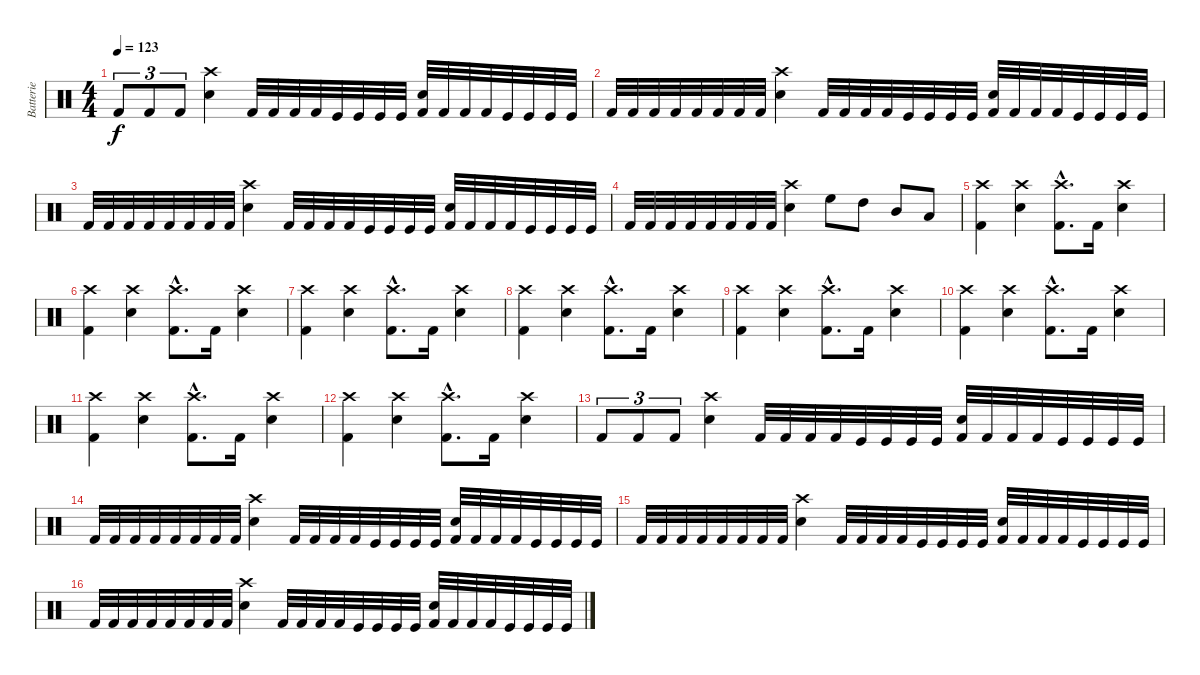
\track ("Batterie" "Batterie") {instrument percussion}
\staff {score}
\articulation defaults
\ts (4 4)
\section ("" "")
\tempo 123
\clef neutral
\ks c "Kick (hit) 2".8{tu (3 2) dy f} "Kick (hit) 2".8{tu (3 2)} "Kick (hit) 2".8{tu (3 2)}
("Snare (hit) 2" "Crash high (hit)").4 "Kick (hit) 2".32 "Kick (hit) 2".32 "Kick (hit) 2".32 "Kick (hit) 2".32 "Kick (hit)".32 "Kick (hit)".32 "Kick (hit)".32 "Kick (hit)".32 ("Kick (hit) 2" "Snare (hit) 2").32 "Kick (hit) 2".32 "Kick (hit) 2".32 "Kick (hit) 2".32 "Kick (hit)".32 "Kick (hit)".32 "Kick (hit)".32 "Kick (hit)".32 |
"Kick (hit) 2".32 "Kick (hit) 2".32 "Kick (hit) 2".32 "Kick (hit) 2".32 "Kick (hit) 2".32 "Kick (hit) 2".32 "Kick (hit) 2".32 "Kick (hit) 2".32 ("Snare (hit) 2" "Crash high (hit)").4 "Kick (hit) 2".32 "Kick (hit) 2".32 "Kick (hit) 2".32 "Kick (hit) 2".32 "Kick (hit)".32 "Kick (hit)".32 "Kick (hit)".32 "Kick (hit)".32 ("Kick (hit) 2" "Snare (hit) 2").32 "Kick (hit) 2".32 "Kick (hit) 2".32 "Kick (hit) 2".32 "Kick (hit)".32 "Kick (hit)".32 "Kick (hit)".32 "Kick (hit)".32 |
"Kick (hit) 2".32 "Kick (hit) 2".32 "Kick (hit) 2".32 "Kick (hit) 2".32 "Kick (hit) 2".32 "Kick (hit) 2".32 "Kick (hit) 2".32 "Kick (hit) 2".32 ("Snare (hit) 2" "Crash high (hit)").4 "Kick (hit) 2".32 "Kick (hit) 2".32 "Kick (hit) 2".32 "Kick (hit) 2".32 "Kick (hit)".32 "Kick (hit)".32 "Kick (hit)".32 "Kick (hit)".32 ("Kick (hit) 2" "Snare (hit) 2").32 "Kick (hit) 2".32 "Kick (hit) 2".32 "Kick (hit) 2".32 "Kick (hit)".32 "Kick (hit)".32 "Kick (hit)".32 "Kick (hit)".32 |
"Kick (hit) 2".32 "Kick (hit) 2".32 "Kick (hit) 2".32 "Kick (hit) 2".32 "Kick (hit) 2".32 "Kick (hit) 2".32 "Kick (hit) 2".32 "Kick (hit) 2".32 ("Snare (hit) 2" "Crash high (hit)").4 "High Floor Tom (hit)".8 "High Tom (hit)".8 "Mid Tom (hit)".8 "Low Tom (hit)".8 |
\section ("" "")
("Kick (hit) 2" "Crash high (hit)").4 ("Snare (hit) 2" "Crash high (hit)").4 ("Kick (hit) 2"{hac} "Crash high (hit)"{hac}).8{d} "Kick (hit) 2".16 ("Snare (hit) 2" "Crash high (hit)").4 |
("Kick (hit) 2" "Crash high (hit)").4 ("Snare (hit) 2" "Crash high (hit)").4 ("Kick (hit) 2"{hac} "Crash high (hit)"{hac}).8{d} "Kick (hit) 2".16 ("Snare (hit) 2" "Crash high (hit)").4 |
("Kick (hit) 2" "Crash high (hit)").4 ("Snare (hit) 2" "Crash high (hit)").4 ("Kick (hit) 2"{hac} "Crash high (hit)"{hac}).8{d} "Kick (hit) 2".16 ("Snare (hit) 2" "Crash high (hit)").4 |
("Kick (hit) 2" "Crash high (hit)").4 ("Snare (hit) 2" "Crash high (hit)").4 ("Kick (hit) 2"{hac} "Crash high (hit)"{hac}).8{d} "Kick (hit) 2".16 ("Snare (hit) 2" "Crash high (hit)").4 |
("Kick (hit) 2" "Crash high (hit)").4 ("Snare (hit) 2" "Crash high (hit)").4 ("Kick (hit) 2"{hac} "Crash high (hit)"{hac}).8{d} "Kick (hit) 2".16 ("Snare (hit) 2" "Crash high (hit)").4 |
("Kick (hit) 2" "Crash high (hit)").4 ("Snare (hit) 2" "Crash high (hit)").4 ("Kick (hit) 2"{hac} "Crash high (hit)"{hac}).8{d} "Kick (hit) 2".16 ("Snare (hit) 2" "Crash high (hit)").4 |
("Kick (hit) 2" "Crash high (hit)").4 ("Snare (hit) 2" "Crash high (hit)").4 ("Kick (hit) 2"{hac} "Crash high (hit)"{hac}).8{d} "Kick (hit) 2".16 ("Snare (hit) 2" "Crash high (hit)").4 |
("Kick (hit) 2" "Crash high (hit)").4 ("Snare (hit) 2" "Crash high (hit)").4 ("Kick (hit) 2"{hac} "Crash high (hit)"{hac}).8{d} "Kick (hit) 2".16 ("Snare (hit) 2" "Crash high (hit)").4 |
\section ("" "")
"Kick (hit) 2".8{tu (3 2)} "Kick (hit) 2".8{tu (3 2)} "Kick (hit) 2".8{tu (3 2)} ("Snare (hit) 2" "Crash high (hit)").4 "Kick (hit) 2".32 "Kick (hit) 2".32 "Kick (hit) 2".32 "Kick (hit) 2".32 "Kick (hit)".32 "Kick (hit)".32 "Kick (hit)".32 "Kick (hit)".32 ("Kick (hit) 2" "Snare (hit) 2").32 "Kick (hit) 2".32 "Kick (hit) 2".32 "Kick (hit) 2".32 "Kick (hit)".32 "Kick (hit)".32 "Kick (hit)".32 "Kick (hit)".32 |
"Kick (hit) 2".32 "Kick (hit) 2".32 "Kick (hit) 2".32 "Kick (hit) 2".32 "Kick (hit) 2".32 "Kick (hit) 2".32 "Kick (hit) 2".32 "Kick (hit) 2".32 ("Snare (hit) 2" "Crash high (hit)").4 "Kick (hit) 2".32 "Kick (hit) 2".32 "Kick (hit) 2".32 "Kick (hit) 2".32 "Kick (hit)".32 "Kick (hit)".32 "Kick (hit)".32 "Kick (hit)".32 ("Kick (hit) 2" "Snare (hit) 2").32 "Kick (hit) 2".32 "Kick (hit) 2".32 "Kick (hit) 2".32 "Kick (hit)".32 "Kick (hit)".32 "Kick (hit)".32 "Kick (hit)".32 |
"Kick (hit) 2".32 "Kick (hit) 2".32 "Kick (hit) 2".32 "Kick (hit) 2".32 "Kick (hit) 2".32 "Kick (hit) 2".32 "Kick (hit) 2".32 "Kick (hit) 2".32 ("Snare (hit) 2" "Crash high (hit)").4 "Kick (hit) 2".32 "Kick (hit) 2".32 "Kick (hit) 2".32 "Kick (hit) 2".32 "Kick (hit)".32 "Kick (hit)".32 "Kick (hit)".32 "Kick (hit)".32 ("Kick (hit) 2" "Snare (hit) 2").32 "Kick (hit) 2".32 "Kick (hit) 2".32 "Kick (hit) 2".32 "Kick (hit)".32 "Kick (hit)".32 "Kick (hit)".32 "Kick (hit)".32 |
"Kick (hit) 2".32 "Kick (hit) 2".32 "Kick (hit) 2".32 "Kick (hit) 2".32 "Kick (hit) 2".32 "Kick (hit) 2".32 "Kick (hit) 2".32 "Kick (hit) 2".32 ("Snare (hit) 2" "Crash high (hit)").4 "Kick (hit) 2".32 "Kick (hit) 2".32 "Kick (hit) 2".32 "Kick (hit) 2".32 "Kick (hit)".32 "Kick (hit)".32 "Kick (hit)".32 "Kick (hit)".32 ("Kick (hit) 2" "Snare (hit) 2").32 "Kick (hit) 2".32 "Kick (hit) 2".32 "Kick (hit) 2".32 "Kick (hit)".32 "Kick (hit)".32 "Kick (hit)".32 "Kick (hit)".32
